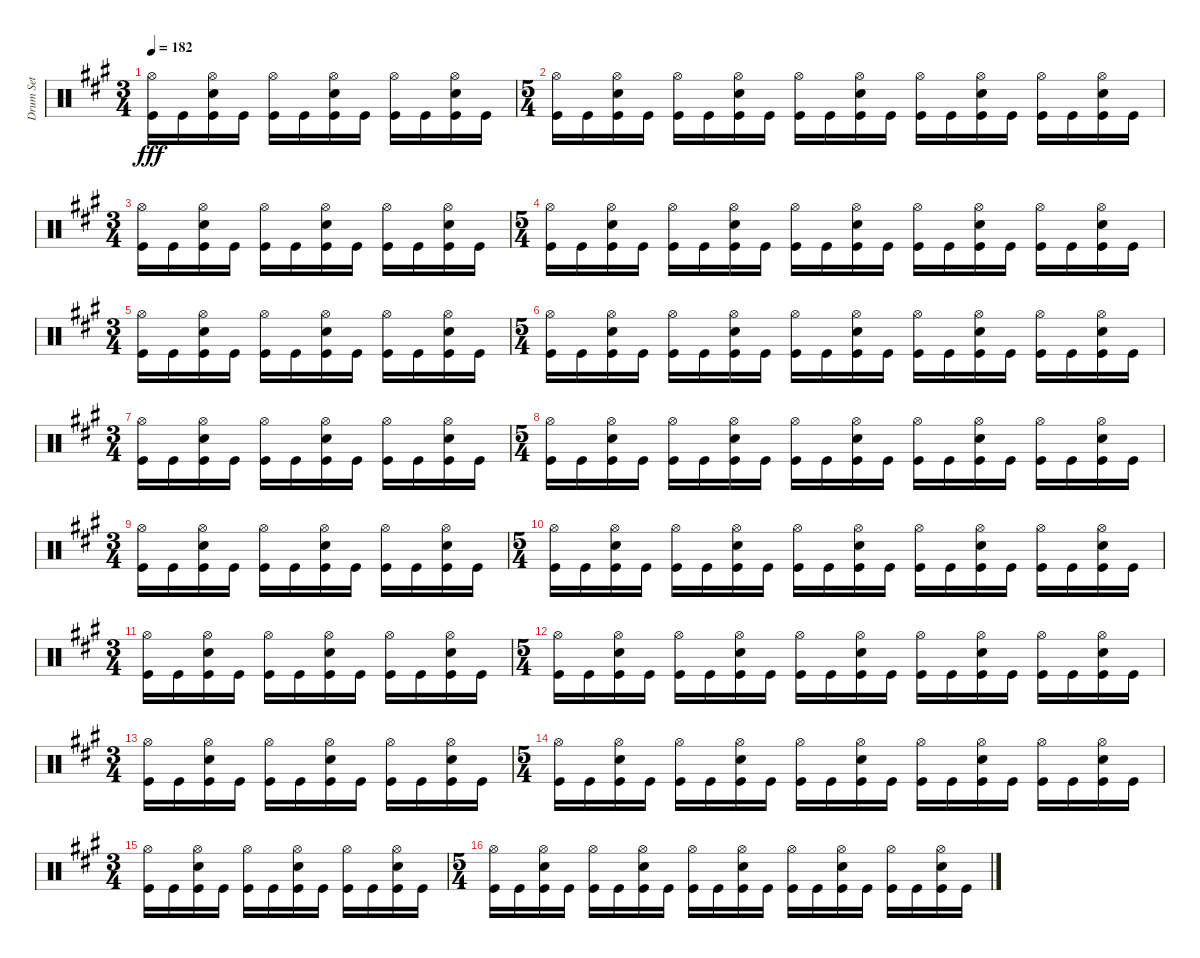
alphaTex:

\track ("Drum Set" "Drum Set") {instrument percussion}
\staff {score}
\articulation defaults
\ts (3 4)
\tempo 182
\clef neutral
\ks a
("Hi-Hat (open)" "Kick (hit)").16{dy fff} "Kick (hit)".16 ("Electric Snare (hit)" "Hi-Hat (open)" "Kick (hit)").16 "Kick (hit)".16 ("Hi-Hat (open)" "Kick (hit)").16 "Kick (hit)".16 ("Electric Snare (hit)" "Hi-Hat (open)" "Kick (hit)").16 "Kick (hit)".16 ("Hi-Hat (open)" "Kick (hit)").16 "Kick (hit)".16 ("Electric Snare (hit)" "Hi-Hat (open)" "Kick (hit)").16 "Kick (hit)".16 |
\ts (5 4)
("Hi-Hat (open)" "Kick (hit)").16 "Kick (hit)".16 ("Electric Snare (hit)" "Hi-Hat (open)" "Kick (hit)").16 "Kick (hit)".16 ("Hi-Hat (open)" "Kick (hit)").16 "Kick (hit)".16 ("Electric Snare (hit)" "Hi-Hat (open)" "Kick (hit)").16 "Kick (hit)".16 ("Hi-Hat (open)" "Kick (hit)").16 "Kick (hit)".16 ("Electric Snare (hit)" "Hi-Hat (open)" "Kick (hit)").16 "Kick (hit)".16 ("Hi-Hat (open)" "Kick (hit)").16 "Kick (hit)".16 ("Electric Snare (hit)" "Hi-Hat (open)" "Kick (hit)").16 "Kick (hit)".16 ("Hi-Hat (open)" "Kick (hit)").16 "Kick (hit)".16 ("Electric Snare (hit)" "Hi-Hat (open)" "Kick (hit)").16 "Kick (hit)".16 |
\ts (3 4)
("Hi-Hat (open)" "Kick (hit)").16 "Kick (hit)".16 ("Electric Snare (hit)" "Hi-Hat (open)" "Kick (hit)").16 "Kick (hit)".16 ("Hi-Hat (open)" "Kick (hit)").16 "Kick (hit)".16 ("Electric Snare (hit)" "Hi-Hat (open)" "Kick (hit)").16 "Kick (hit)".16 ("Hi-Hat (open)" "Kick (hit)").16 "Kick (hit)".16 ("Electric Snare (hit)" "Hi-Hat (open)" "Kick (hit)").16 "Kick (hit)".16 |
\ts (5 4)
("Hi-Hat (open)" "Kick (hit)").16 "Kick (hit)".16 ("Electric Snare (hit)" "Hi-Hat (open)" "Kick (hit)").16 "Kick (hit)".16 ("Hi-Hat (open)" "Kick (hit)").16 "Kick (hit)".16 ("Electric Snare (hit)" "Hi-Hat (open)" "Kick (hit)").16 "Kick (hit)".16 ("Hi-Hat (open)" "Kick (hit)").16 "Kick (hit)".16 ("Electric Snare (hit)" "Hi-Hat (open)" "Kick (hit)").16 "Kick (hit)".16 ("Hi-Hat (open)" "Kick (hit)").16 "Kick (hit)".16 ("Electric Snare (hit)" "Hi-Hat (open)" "Kick (hit)").16 "Kick (hit)".16 ("Hi-Hat (open)" "Kick (hit)").16 "Kick (hit)".16 ("Electric Snare (hit)" "Hi-Hat (open)" "Kick (hit)").16 "Kick (hit)".16 |
\ts (3 4)
("Hi-Hat (open)" "Kick (hit)").16 "Kick (hit)".16 ("Electric Snare (hit)" "Hi-Hat (open)" "Kick (hit)").16 "Kick (hit)".16 ("Hi-Hat (open)" "Kick (hit)").16 "Kick (hit)".16 ("Electric Snare (hit)" "Hi-Hat (open)" "Kick (hit)").16 "Kick (hit)".16 ("Hi-Hat (open)" "Kick (hit)").16 "Kick (hit)".16 ("Electric Snare (hit)" "Hi-Hat (open)" "Kick (hit)").16 "Kick (hit)".16 |
\ts (5 4)
("Hi-Hat (open)" "Kick (hit)").16 "Kick (hit)".16 ("Electric Snare (hit)" "Hi-Hat (open)" "Kick (hit)").16 "Kick (hit)".16 ("Hi-Hat (open)" "Kick (hit)").16 "Kick (hit)".16 ("Electric Snare (hit)" "Hi-Hat (open)" "Kick (hit)").16 "Kick (hit)".16 ("Hi-Hat (open)" "Kick (hit)").16 "Kick (hit)".16 ("Electric Snare (hit)" "Hi-Hat (open)" "Kick (hit)").16 "Kick (hit)".16 ("Hi-Hat (open)" "Kick (hit)").16 "Kick (hit)".16 ("Electric Snare (hit)" "Hi-Hat (open)" "Kick (hit)").16 "Kick (hit)".16 ("Hi-Hat (open)" "Kick (hit)").16 "Kick (hit)".16 ("Electric Snare (hit)" "Hi-Hat (open)" "Kick (hit)").16 "Kick (hit)".16 |
\ts (3 4)
("Hi-Hat (open)" "Kick (hit)").16 "Kick (hit)".16 ("Electric Snare (hit)" "Hi-Hat (open)" "Kick (hit)").16 "Kick (hit)".16 ("Hi-Hat (open)" "Kick (hit)").16 "Kick (hit)".16 ("Electric Snare (hit)" "Hi-Hat (open)" "Kick (hit)").16 "Kick (hit)".16 ("Hi-Hat (open)" "Kick (hit)").16 "Kick (hit)".16 ("Electric Snare (hit)" "Hi-Hat (open)" "Kick (hit)").16 "Kick (hit)".16 |
\ts (5 4)
("Hi-Hat (open)" "Kick (hit)").16 "Kick (hit)".16 ("Electric Snare (hit)" "Hi-Hat (open)" "Kick (hit)").16 "Kick (hit)".16 ("Hi-Hat (open)" "Kick (hit)").16 "Kick (hit)".16 ("Electric Snare (hit)" "Hi-Hat (open)" "Kick (hit)").16 "Kick (hit)".16 ("Hi-Hat (open)" "Kick (hit)").16 "Kick (hit)".16 ("Electric Snare (hit)" "Hi-Hat (open)" "Kick (hit)").16 "Kick (hit)".16 ("Hi-Hat (open)" "Kick (hit)").16 "Kick (hit)".16 ("Electric Snare (hit)" "Hi-Hat (open)" "Kick (hit)").16 "Kick (hit)".16 ("Hi-Hat (open)" "Kick (hit)").16 "Kick (hit)".16 ("Electric Snare (hit)" "Hi-Hat (open)" "Kick (hit)").16 "Kick (hit)".16 |
\ts (3 4)
("Hi-Hat (open)" "Kick (hit)").16 "Kick (hit)".16 ("Electric Snare (hit)" "Hi-Hat (open)" "Kick (hit)").16 "Kick (hit)".16 ("Hi-Hat (open)" "Kick (hit)").16 "Kick (hit)".16 ("Electric Snare (hit)" "Hi-Hat (open)" "Kick (hit)").16 "Kick (hit)".16 ("Hi-Hat (open)" "Kick (hit)").16 "Kick (hit)".16 ("Electric Snare (hit)" "Hi-Hat (open)" "Kick (hit)").16 "Kick (hit)".16 |
\ts (5 4)
("Hi-Hat (open)" "Kick (hit)").16 "Kick (hit)".16 ("Electric Snare (hit)" "Hi-Hat (open)" "Kick (hit)").16 "Kick (hit)".16 ("Hi-Hat (open)" "Kick (hit)").16 "Kick (hit)".16 ("Electric Snare (hit)" "Hi-Hat (open)" "Kick (hit)").16 "Kick (hit)".16 ("Hi-Hat (open)" "Kick (hit)").16 "Kick (hit)".16 ("Electric Snare (hit)" "Hi-Hat (open)" "Kick (hit)").16 "Kick (hit)".16 ("Hi-Hat (open)" "Kick (hit)").16 "Kick (hit)".16 ("Electric Snare (hit)" "Hi-Hat (open)" "Kick (hit)").16 "Kick (hit)".16 ("Hi-Hat (open)" "Kick (hit)").16 "Kick (hit)".16 ("Electric Snare (hit)" "Hi-Hat (open)" "Kick (hit)").16 "Kick (hit)".16 |
\ts (3 4)
("Hi-Hat (open)" "Kick (hit)").16 "Kick (hit)".16 ("Electric Snare (hit)" "Hi-Hat (open)" "Kick (hit)").16 "Kick (hit)".16 ("Hi-Hat (open)" "Kick (hit)").16 "Kick (hit)".16 ("Electric Snare (hit)" "Hi-Hat (open)" "Kick (hit)").16 "Kick (hit)".16 ("Hi-Hat (open)" "Kick (hit)").16 "Kick (hit)".16 ("Electric Snare (hit)" "Hi-Hat (open)" "Kick (hit)").16 "Kick (hit)".16 |
\ts (5 4)
("Hi-Hat (open)" "Kick (hit)").16 "Kick (hit)".16 ("Electric Snare (hit)" "Hi-Hat (open)" "Kick (hit)").16 "Kick (hit)".16 ("Hi-Hat (open)" "Kick (hit)").16 "Kick (hit)".16 ("Electric Snare (hit)" "Hi-Hat (open)" "Kick (hit)").16 "Kick (hit)".16 ("Hi-Hat (open)" "Kick (hit)").16 "Kick (hit)".16 ("Electric Snare (hit)" "Hi-Hat (open)" "Kick (hit)").16 "Kick (hit)".16 ("Hi-Hat (open)" "Kick (hit)").16 "Kick (hit)".16 ("Electric Snare (hit)" "Hi-Hat (open)" "Kick (hit)").16 "Kick (hit)".16 ("Hi-Hat (open)" "Kick (hit)").16 "Kick (hit)".16 ("Electric Snare (hit)" "Hi-Hat (open)" "Kick (hit)").16 "Kick (hit)".16 |
\ts (3 4)
("Hi-Hat (open)" "Kick (hit)").16 "Kick (hit)".16 ("Electric Snare (hit)" "Hi-Hat (open)" "Kick (hit)").16 "Kick (hit)".16 ("Hi-Hat (open)" "Kick (hit)").16 "Kick (hit)".16 ("Electric Snare (hit)" "Hi-Hat (open)" "Kick (hit)").16 "Kick (hit)".16 ("Hi-Hat (open)" "Kick (hit)").16 "Kick (hit)".16 ("Electric Snare (hit)" "Hi-Hat (open)" "Kick (hit)").16 "Kick (hit)".16 |
\ts (5 4)
("Hi-Hat (open)" "Kick (hit)").16 "Kick (hit)".16 ("Electric Snare (hit)" "Hi-Hat (open)" "Kick (hit)").16 "Kick (hit)".16 ("Hi-Hat (open)" "Kick (hit)").16 "Kick (hit)".16 ("Electric Snare (hit)" "Hi-Hat (open)" "Kick (hit)").16 "Kick (hit)".16 ("Hi-Hat (open)" "Kick (hit)").16 "Kick (hit)".16 ("Electric Snare (hit)" "Hi-Hat (open)" "Kick (hit)").16 "Kick (hit)".16 ("Hi-Hat (open)" "Kick (hit)").16 "Kick (hit)".16 ("Electric Snare (hit)" "Hi-Hat (open)" "Kick (hit)").16 "Kick (hit)".16 ("Hi-Hat (open)" "Kick (hit)").16 "Kick (hit)".16 ("Electric Snare (hit)" "Hi-Hat (open)" "Kick (hit)").16 "Kick (hit)".16 |
\ts (3 4)
("Hi-Hat (open)" "Kick (hit)").16 "Kick (hit)".16 ("Electric Snare (hit)" "Hi-Hat (open)" "Kick (hit)").16 "Kick (hit)".16 ("Hi-Hat (open)" "Kick (hit)").16 "Kick (hit)".16 ("Electric Snare (hit)" "Hi-Hat (open)" "Kick (hit)").16 "Kick (hit)".16 ("Hi-Hat (open)" "Kick (hit)").16 "Kick (hit)".16 ("Electric Snare (hit)" "Hi-Hat (open)" "Kick (hit)").16 "Kick (hit)".16 |
\ts (5 4)
("Hi-Hat (open)" "Kick (hit)").16 "Kick (hit)".16 ("Electric Snare (hit)" "Hi-Hat (open)" "Kick (hit)").16 "Kick (hit)".16 ("Hi-Hat (open)" "Kick (hit)").16 "Kick (hit)".16 ("Electric Snare (hit)" "Hi-Hat (open)" "Kick (hit)").16 "Kick (hit)".16 ("Hi-Hat (open)" "Kick (hit)").16 "Kick (hit)".16 ("Electric Snare (hit)" "Hi-Hat (open)" "Kick (hit)").16 "Kick (hit)".16 ("Hi-Hat (open)" "Kick (hit)").16 "Kick (hit)".16 ("Electric Snare (hit)" "Hi-Hat (open)" "Kick (hit)").16 "Kick (hit)".16 ("Hi-Hat (open)" "Kick (hit)").16 "Kick (hit)".16 ("Electric Snare (hit)" "Hi-Hat (open)" "Kick (hit)").16 "Kick (hit)".16
